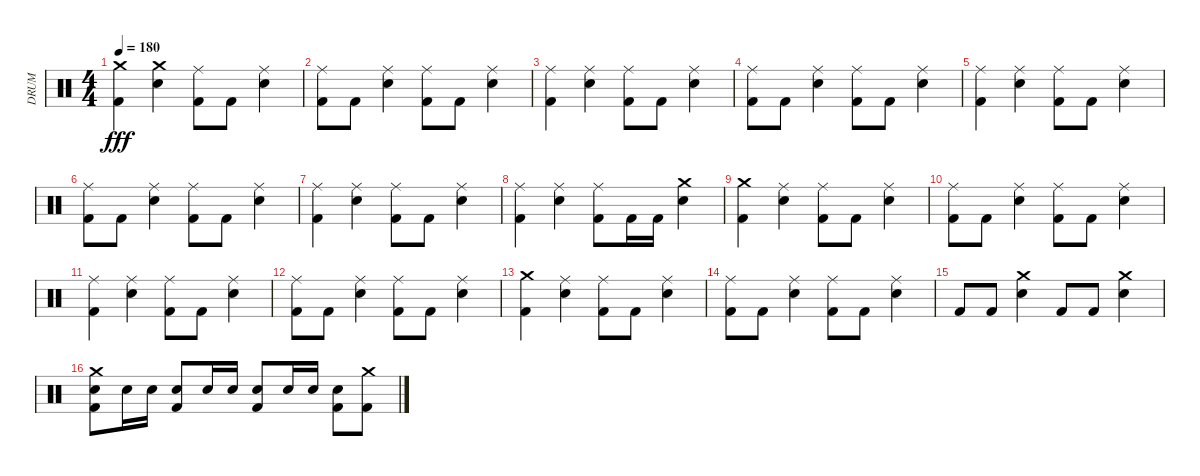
\track ("DRUM" "DRUM") {instrument percussion}
\staff {score}
\articulation defaults
\ts (4 4)
\tempo 180
\clef neutral
\ks c
("Crash medium (hit)" "Kick (hit) 2").4{dy fff} ("Crash medium (hit)" "Snare (hit) 2").4 ("Ride (middle)" "Kick (hit) 2").8 "Kick (hit) 2".8 ("Ride (middle)" "Snare (hit) 2").4 |
("Ride (middle)" "Kick (hit) 2").8 "Kick (hit) 2".8 ("Ride (middle)" "Snare (hit) 2").4 ("Ride (middle)" "Kick (hit) 2").8 "Kick (hit) 2".8 ("Ride (middle)" "Snare (hit) 2").4 |
("Ride (middle)" "Kick (hit) 2").4 ("Ride (middle)" "Snare (hit) 2").4 ("Ride (middle)" "Kick (hit) 2").8 "Kick (hit) 2".8 ("Ride (middle)" "Snare (hit) 2").4 |
("Ride (middle)" "Kick (hit) 2").8 "Kick (hit) 2".8 ("Ride (middle)" "Snare (hit) 2").4 ("Ride (middle)" "Kick (hit) 2").8 "Kick (hit) 2".8 ("Ride (middle)" "Snare (hit) 2").4 |
("Ride (middle)" "Kick (hit) 2").4 ("Ride (middle)" "Snare (hit) 2").4 ("Ride (middle)" "Kick (hit) 2").8 "Kick (hit) 2".8 ("Ride (middle)" "Snare (hit) 2").4 |
("Ride (middle)" "Kick (hit) 2").8 "Kick (hit) 2".8 ("Ride (middle)" "Snare (hit) 2").4 ("Ride (middle)" "Kick (hit) 2").8 "Kick (hit) 2".8 ("Ride (middle)" "Snare (hit) 2").4 |
("Ride (middle)" "Kick (hit) 2").4 ("Ride (middle)" "Snare (hit) 2").4 ("Ride (middle)" "Kick (hit) 2").8 "Kick (hit) 2".8 ("Ride (middle)" "Snare (hit) 2").4 |
("Ride (middle)" "Kick (hit) 2").4 ("Ride (middle)" "Snare (hit) 2").4 ("Ride (middle)" "Kick (hit) 2").8 "Kick (hit) 2".16 "Kick (hit) 2".16 ("Crash medium (hit)" "Snare (hit) 2").4 |
("Crash medium (hit)" "Kick (hit) 2").4 ("Ride (middle)" "Snare (hit) 2").4 ("Ride (middle)" "Kick (hit) 2").8 "Kick (hit) 2".8 ("Ride (middle)" "Snare (hit) 2").4 |
("Ride (middle)" "Kick (hit) 2").8 "Kick (hit) 2".8 ("Ride (middle)" "Snare (hit) 2").4 ("Ride (middle)" "Kick (hit) 2").8 "Kick (hit) 2".8 ("Ride (middle)" "Snare (hit) 2").4 |
("Ride (middle)" "Kick (hit) 2").4 ("Ride (middle)" "Snare (hit) 2").4 ("Ride (middle)" "Kick (hit) 2").8 "Kick (hit) 2".8 ("Ride (middle)" "Snare (hit) 2").4 |
("Ride (middle)" "Kick (hit) 2").8 "Kick (hit) 2".8 ("Ride (middle)" "Snare (hit) 2").4 ("Ride (middle)" "Kick (hit) 2").8 "Kick (hit) 2".8 ("Ride (middle)" "Snare (hit) 2").4 |
("Crash medium (hit)" "Kick (hit) 2").4 ("Ride (middle)" "Snare (hit) 2").4 ("Ride (middle)" "Kick (hit) 2").8 "Kick (hit) 2".8 ("Ride (middle)" "Snare (hit) 2").4 |
("Ride (middle)" "Kick (hit) 2").8 "Kick (hit) 2".8 ("Ride (middle)" "Snare (hit) 2").4 ("Ride (middle)" "Kick (hit) 2").8 "Kick (hit) 2".8 ("Ride (middle)" "Snare (hit) 2").4 |
"Kick (hit) 2".8 "Kick (hit) 2".8 ("Crash medium (hit)" "Snare (hit) 2").4 "Kick (hit) 2".8 "Kick (hit) 2".8 ("Crash medium (hit)" "Snare (hit) 2").4 |
("Crash medium (hit)" "Snare (hit) 2" "Kick (hit) 2").8 "Snare (hit) 2".16 "Snare (hit) 2".16 ("Snare (hit) 2" "Kick (hit) 2").8 "Snare (hit) 2".16 "Snare (hit) 2".16 ("Snare (hit) 2" "Kick (hit) 2").8 "Snare (hit) 2".16 "Snare (hit) 2".16 ("Snare (hit) 2" "Kick (hit) 2").8 ("Crash medium (hit)" "Kick (hit) 2").8
